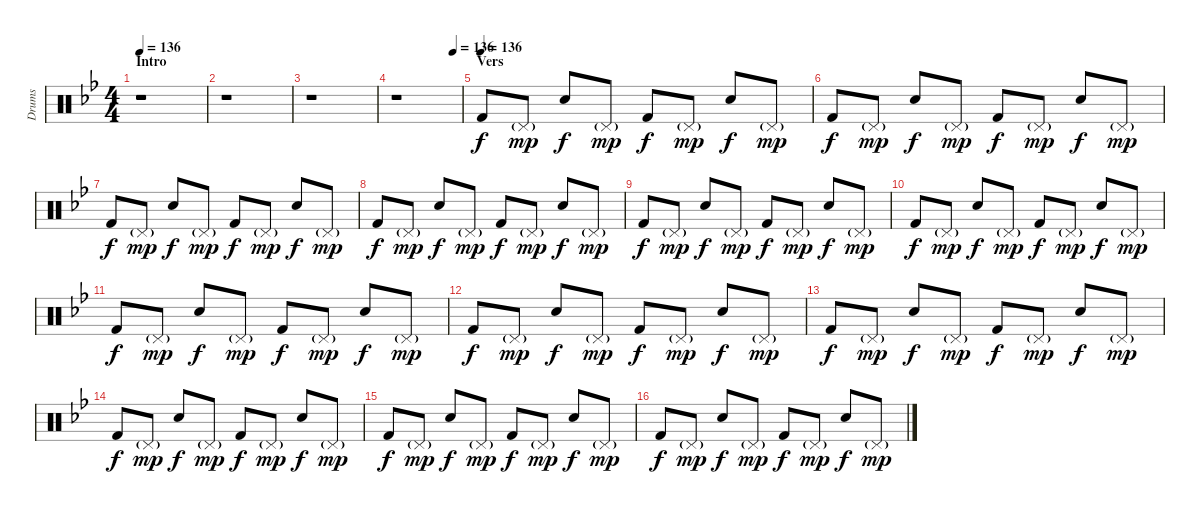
\track ("Drums" "Drums") {instrument percussion}
\staff {score}
\articulation defaults
\ts (4 4)
\section ("" "Intro")
\tempo 136
\tempo 64
\tempo 136
\clef neutral
\ks gminor
r.1{dy f} |
r.1 |
r.1 |
\tempo (136 0.875)
r.1 |
\section ("" "Vers")
\tempo (136)
"Kick (hit) 2".8{volume 16} "Pedal Hi-Hat (hit)"{g}.8{dy mp} "Hand Clap (hit)".8{dy f} "Pedal Hi-Hat (hit)"{g}.8{dy mp} "Kick (hit) 2".8{dy f} "Pedal Hi-Hat (hit)"{g}.8{dy mp} "Hand Clap (hit)".8{dy f} "Pedal Hi-Hat (hit)"{g}.8{dy mp} |
"Kick (hit) 2".8{dy f} "Pedal Hi-Hat (hit)"{g}.8{dy mp} "Hand Clap (hit)".8{dy f} "Pedal Hi-Hat (hit)"{g}.8{dy mp} "Kick (hit) 2".8{dy f} "Pedal Hi-Hat (hit)"{g}.8{dy mp} "Hand Clap (hit)".8{dy f} "Pedal Hi-Hat (hit)"{g}.8{dy mp} |
"Kick (hit) 2".8{dy f} "Pedal Hi-Hat (hit)"{g}.8{dy mp} "Hand Clap (hit)".8{dy f} "Pedal Hi-Hat (hit)"{g}.8{dy mp} "Kick (hit) 2".8{dy f} "Pedal Hi-Hat (hit)"{g}.8{dy mp} "Hand Clap (hit)".8{dy f} "Pedal Hi-Hat (hit)"{g}.8{dy mp} |
"Kick (hit) 2".8{dy f} "Pedal Hi-Hat (hit)"{g}.8{dy mp} "Hand Clap (hit)".8{dy f} "Pedal Hi-Hat (hit)"{g}.8{dy mp} "Kick (hit) 2".8{dy f} "Pedal Hi-Hat (hit)"{g}.8{dy mp} "Hand Clap (hit)".8{dy f} "Pedal Hi-Hat (hit)"{g}.8{dy mp} |
"Kick (hit) 2".8{dy f} "Pedal Hi-Hat (hit)"{g}.8{dy mp} "Hand Clap (hit)".8{dy f} "Pedal Hi-Hat (hit)"{g}.8{dy mp} "Kick (hit) 2".8{dy f} "Pedal Hi-Hat (hit)"{g}.8{dy mp} "Hand Clap (hit)".8{dy f} "Pedal Hi-Hat (hit)"{g}.8{dy mp} |
"Kick (hit) 2".8{dy f} "Pedal Hi-Hat (hit)"{g}.8{dy mp} "Hand Clap (hit)".8{dy f} "Pedal Hi-Hat (hit)"{g}.8{dy mp} "Kick (hit) 2".8{dy f} "Pedal Hi-Hat (hit)"{g}.8{dy mp} "Hand Clap (hit)".8{dy f} "Pedal Hi-Hat (hit)"{g}.8{dy mp} |
"Kick (hit) 2".8{dy f} "Pedal Hi-Hat (hit)"{g}.8{dy mp} "Hand Clap (hit)".8{dy f} "Pedal Hi-Hat (hit)"{g}.8{dy mp} "Kick (hit) 2".8{dy f} "Pedal Hi-Hat (hit)"{g}.8{dy mp} "Hand Clap (hit)".8{dy f} "Pedal Hi-Hat (hit)"{g}.8{dy mp} |
"Kick (hit) 2".8{dy f} "Pedal Hi-Hat (hit)"{g}.8{dy mp} "Hand Clap (hit)".8{dy f} "Pedal Hi-Hat (hit)"{g}.8{dy mp} "Kick (hit) 2".8{dy f} "Pedal Hi-Hat (hit)"{g}.8{dy mp} "Hand Clap (hit)".8{dy f} "Pedal Hi-Hat (hit)"{g}.8{dy mp} |
"Kick (hit) 2".8{dy f} "Pedal Hi-Hat (hit)"{g}.8{dy mp} "Hand Clap (hit)".8{dy f} "Pedal Hi-Hat (hit)"{g}.8{dy mp} "Kick (hit) 2".8{dy f} "Pedal Hi-Hat (hit)"{g}.8{dy mp} "Hand Clap (hit)".8{dy f} "Pedal Hi-Hat (hit)"{g}.8{dy mp} |
"Kick (hit) 2".8{dy f} "Pedal Hi-Hat (hit)"{g}.8{dy mp} "Hand Clap (hit)".8{dy f} "Pedal Hi-Hat (hit)"{g}.8{dy mp} "Kick (hit) 2".8{dy f} "Pedal Hi-Hat (hit)"{g}.8{dy mp} "Hand Clap (hit)".8{dy f} "Pedal Hi-Hat (hit)"{g}.8{dy mp} |
"Kick (hit) 2".8{dy f} "Pedal Hi-Hat (hit)"{g}.8{dy mp} "Hand Clap (hit)".8{dy f} "Pedal Hi-Hat (hit)"{g}.8{dy mp} "Kick (hit) 2".8{dy f} "Pedal Hi-Hat (hit)"{g}.8{dy mp} "Hand Clap (hit)".8{dy f} "Pedal Hi-Hat (hit)"{g}.8{dy mp} |
"Kick (hit) 2".8{dy f} "Pedal Hi-Hat (hit)"{g}.8{dy mp} "Hand Clap (hit)".8{dy f} "Pedal Hi-Hat (hit)"{g}.8{dy mp} "Kick (hit) 2".8{dy f} "Pedal Hi-Hat (hit)"{g}.8{dy mp} "Hand Clap (hit)".8{dy f} "Pedal Hi-Hat (hit)"{g}.8{dy mp}
